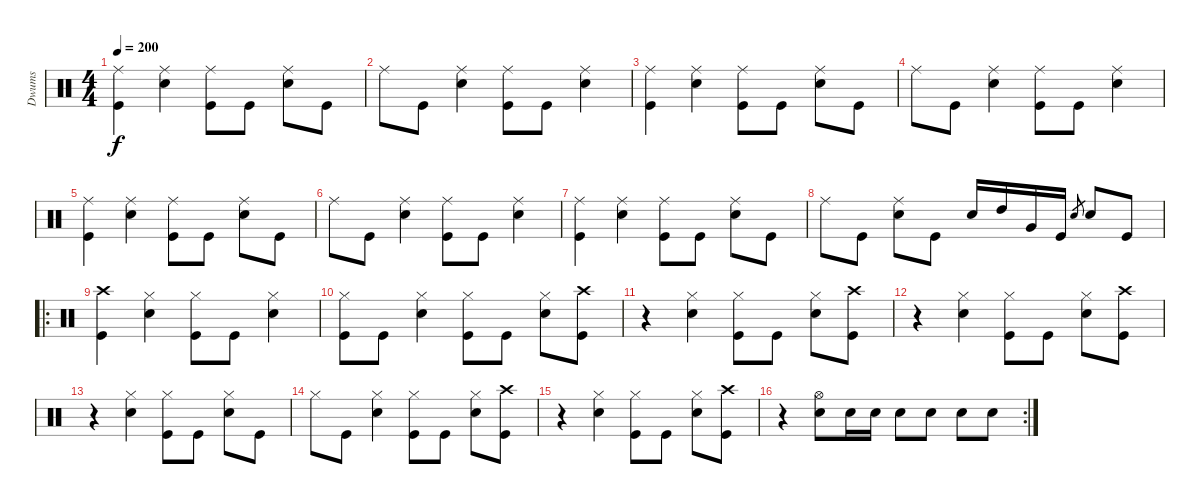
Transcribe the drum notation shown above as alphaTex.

\track ("Dwums" "Dwums") {instrument percussion}
\staff {score}
\articulation defaults
\ts (4 4)
\tempo 200
\clef neutral
\ks c
("Ride (middle)" "Kick (hit)").4{dy f} ("Snare (hit) 2" "Ride (middle)").4 ("Ride (middle)" "Kick (hit)").8 "Kick (hit)".8 ("Ride (middle)" "Snare (hit) 2").8 "Kick (hit)".8 |
"Ride (middle)".8 "Kick (hit)".8 ("Ride (middle)" "Snare (hit) 2").4 ("Ride (middle)" "Kick (hit)").8 "Kick (hit)".8 ("Ride (middle)" "Snare (hit) 2").4 |
("Ride (middle)" "Kick (hit)").4 ("Snare (hit) 2" "Ride (middle)").4 ("Ride (middle)" "Kick (hit)").8 "Kick (hit)".8 ("Ride (middle)" "Snare (hit) 2").8 "Kick (hit)".8 |
"Ride (middle)".8 "Kick (hit)".8 ("Ride (middle)" "Snare (hit) 2").4 ("Ride (middle)" "Kick (hit)").8 "Kick (hit)".8 ("Ride (middle)" "Snare (hit) 2").4 |
("Ride (middle)" "Kick (hit)").4 ("Snare (hit) 2" "Ride (middle)").4 ("Ride (middle)" "Kick (hit)").8 "Kick (hit)".8 ("Ride (middle)" "Snare (hit) 2").8 "Kick (hit)".8 |
"Ride (middle)".8 "Kick (hit)".8 ("Ride (middle)" "Snare (hit) 2").4 ("Ride (middle)" "Kick (hit)").8 "Kick (hit)".8 ("Ride (middle)" "Snare (hit) 2").4 |
("Ride (middle)" "Kick (hit)").4 ("Snare (hit) 2" "Ride (middle)").4 ("Ride (middle)" "Kick (hit)").8 "Kick (hit)".8 ("Ride (middle)" "Snare (hit) 2").8 "Kick (hit)".8 |
"Ride (middle)".8 "Kick (hit)".8 ("Ride (middle)" "Snare (hit) 2").8 "Kick (hit)".8 "Snare (hit) 2".16 "High Tom (hit)".16 "Very Low Tom (hit)".16 "Kick (hit)".16 "Snare (hit) 2".8{gr} "Snare (hit) 2".8 "Kick (hit)".8 |
\ro
("Kick (hit)" "Crash high (hit)").4 ("Snare (hit) 2" "Hi-Hat (closed)").4 ("Hi-Hat (closed)" "Kick (hit)").8 "Kick (hit)".8 ("Hi-Hat (closed)" "Snare (hit) 2").4 |
("Hi-Hat (closed)" "Kick (hit)").8 "Kick (hit)".8 ("Snare (hit) 2" "Hi-Hat (closed)").4 ("Hi-Hat (closed)" "Kick (hit)").8 "Kick (hit)".8 ("Hi-Hat (closed)" "Snare (hit) 2").8 ("Kick (hit)" "Crash high (hit)").8 |
r.4 ("Hi-Hat (closed)" "Snare (hit) 2").4 ("Hi-Hat (closed)" "Kick (hit)").8 "Kick (hit)".8 ("Snare (hit) 2" "Hi-Hat (closed)").8 ("Kick (hit)" "Crash high (hit)").8 |
r.4 ("Hi-Hat (closed)" "Snare (hit) 2").4 ("Hi-Hat (closed)" "Kick (hit)").8 "Kick (hit)".8 ("Snare (hit) 2" "Hi-Hat (closed)").8 ("Kick (hit)" "Crash high (hit)").8 |
r.4 ("Snare (hit) 2" "Hi-Hat (closed)").4 ("Hi-Hat (closed)" "Kick (hit)").8 "Kick (hit)".8 ("Hi-Hat (closed)" "Snare (hit) 2").8 "Kick (hit)".8 |
"Hi-Hat (closed)".8 "Kick (hit)".8 ("Snare (hit) 2" "Hi-Hat (closed)").4 ("Hi-Hat (closed)" "Kick (hit)").8 "Kick (hit)".8 ("Hi-Hat (closed)" "Snare (hit) 2").8 ("Kick (hit)" "Crash high (hit)").8 |
r.4 ("Hi-Hat (closed)" "Snare (hit) 2").4 ("Hi-Hat (closed)" "Kick (hit)").8 "Kick (hit)".8 ("Snare (hit) 2" "Hi-Hat (closed)").8 ("Kick (hit)" "Crash high (hit)").8 |
\rc 2
r.4 ("Snare (hit) 2" "Hi-Hat (open)").8 "Snare (hit) 2".16 "Snare (hit) 2".16 "Snare (hit) 2".8 "Snare (hit) 2".8 "Snare (hit) 2".8 "Snare (hit) 2".8
